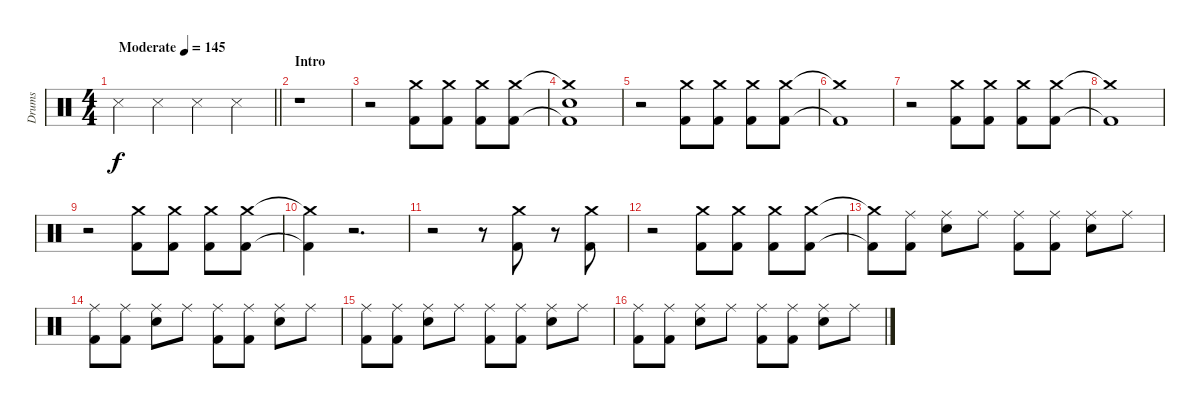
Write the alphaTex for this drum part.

\track ("Drums" "Drums") {instrument percussion}
\staff {score}
\articulation defaults
\ts (4 4)
\tempo (145 "Moderate")
\clef neutral
\barLineRight lightlight
\ks c "Metronome (hit)".4{dy f} "Metronome (hit)".4 "Metronome (hit)".4 "Metronome (hit)".4
|
\section ("" "Intro")
r.1 |
r.2 ("Crash medium (hit)" "Kick (hit) 2").8 ("Crash medium (hit)" "Kick (hit) 2").8 ("Crash medium (hit)" "Kick (hit) 2").8 ("Crash medium (hit)" "Kick (hit) 2").8 |
("Crash medium (hit)"{t} "Kick (hit) 2"{t} "Snare (hit)").1 |
r.2 ("Crash medium (hit)" "Kick (hit) 2").8 ("Crash medium (hit)" "Kick (hit) 2").8 ("Crash medium (hit)" "Kick (hit) 2").8 ("Crash medium (hit)" "Kick (hit) 2").8 |
("Crash medium (hit)"{t} "Kick (hit) 2"{t}).1 |
r.2 ("Crash medium (hit)" "Kick (hit) 2").8 ("Crash medium (hit)" "Kick (hit) 2").8 ("Crash medium (hit)" "Kick (hit) 2").8 ("Crash medium (hit)" "Kick (hit) 2").8 |
("Crash medium (hit)"{t} "Kick (hit) 2"{t}).1 |
r.2 ("Crash medium (hit)" "Kick (hit) 2").8 ("Crash medium (hit)" "Kick (hit) 2").8 ("Crash medium (hit)" "Kick (hit) 2").8 ("Crash medium (hit)" "Kick (hit) 2").8 |
("Crash medium (hit)"{t} "Kick (hit) 2"{t}).4 r.2{d} |
r.2 r.8 ("Crash medium (hit)" "Kick (hit) 2").8 r.8 ("Crash medium (hit)" "Kick (hit) 2").8 |
r.2 ("Crash medium (hit)" "Kick (hit) 2").8 ("Crash medium (hit)" "Kick (hit) 2").8 ("Crash medium (hit)" "Kick (hit) 2").8 ("Crash medium (hit)" "Kick (hit) 2").8 |
("Crash medium (hit)"{t} "Kick (hit) 2"{t}).8 ("Ride (middle)" "Kick (hit) 2").8 ("Ride (middle)" "Snare (hit) 2").8 "Ride (middle)".8 ("Ride (middle)" "Kick (hit) 2").8 ("Ride (middle)" "Kick (hit) 2").8 ("Ride (middle)" "Snare (hit) 2").8 "Ride (middle)".8 |
("Ride (middle)" "Kick (hit) 2").8 ("Ride (middle)" "Kick (hit) 2").8 ("Ride (middle)" "Snare (hit) 2").8 "Ride (middle)".8 ("Ride (middle)" "Kick (hit) 2").8 ("Ride (middle)" "Kick (hit) 2").8 ("Ride (middle)" "Snare (hit) 2").8 "Ride (middle)".8 |
("Ride (middle)" "Kick (hit) 2").8 ("Ride (middle)" "Kick (hit) 2").8 ("Ride (middle)" "Snare (hit) 2").8 "Ride (middle)".8 ("Ride (middle)" "Kick (hit) 2").8 ("Ride (middle)" "Kick (hit) 2").8 ("Ride (middle)" "Snare (hit) 2").8 "Ride (middle)".8 |
("Ride (middle)" "Kick (hit) 2").8 ("Ride (middle)" "Kick (hit) 2").8 ("Ride (middle)" "Snare (hit) 2").8 "Ride (middle)".8 ("Ride (middle)" "Kick (hit) 2").8 ("Ride (middle)" "Kick (hit) 2").8 ("Ride (middle)" "Snare (hit) 2").8 "Ride (middle)".8
